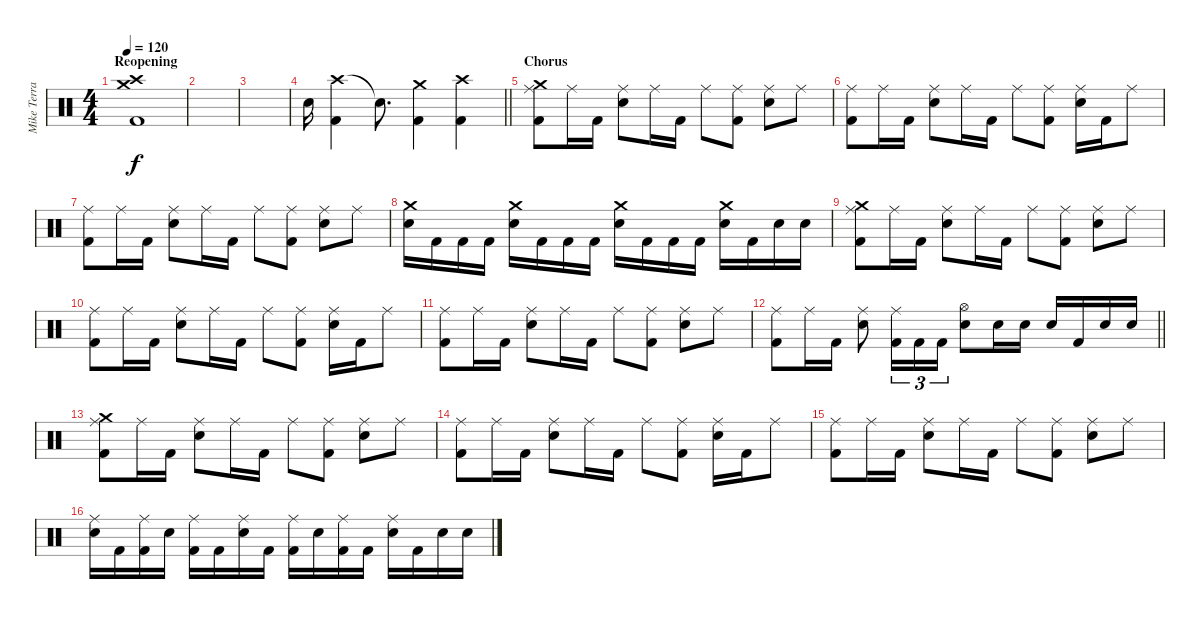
\track ("Mike Terrana" "Mike Terra") {instrument percussion}
\staff {score}
\articulation defaults
\ts (4 4)
\section ("" "Reopening")
\tempo 120
\clef neutral
\ks c
("Crash high (hit)" "Crash medium (hit)" "Kick (hit) 2").1{dy f} |
|
|
\barLineRight lightlight "Snare (hit) 2".16
("Crash high (hit)" "Kick (hit) 2").4 "Snare (hit)"{t}.8{d} ("Crash medium (hit)" "Kick (hit) 2").4 ("Crash high (hit)" "Kick (hit) 2").4 |
\section ("" "Chorus")
("Crash medium (hit)" "Ride (middle)" "Kick (hit) 2").8 "Ride (middle)".16 "Kick (hit) 2".16 ("Ride (middle)" "Snare (hit) 2").8 "Ride (middle)".16 "Kick (hit) 2".16 "Ride (middle)".8 ("Ride (middle)" "Kick (hit) 2").8 ("Ride (middle)" "Snare (hit) 2").8 "Ride (middle)".8 |
("Ride (middle)" "Kick (hit) 2").8 "Ride (middle)".16 "Kick (hit) 2".16 ("Ride (middle)" "Snare (hit) 2").8 "Ride (middle)".16 "Kick (hit) 2".16 "Ride (middle)".8 ("Ride (middle)" "Kick (hit) 2").8 ("Ride (middle)" "Snare (hit) 2").16 "Kick (hit) 2".16 "Ride (middle)".8 |
("Ride (middle)" "Kick (hit) 2").8 "Ride (middle)".16 "Kick (hit) 2".16 ("Ride (middle)" "Snare (hit) 2").8 "Ride (middle)".16 "Kick (hit) 2".16 "Ride (middle)".8 ("Ride (middle)" "Kick (hit) 2").8 ("Ride (middle)" "Snare (hit) 2").8 "Ride (middle)".8 |
("Crash medium (hit)" "Snare (hit) 2").16 "Kick (hit) 2".16 "Kick (hit) 2".16 "Kick (hit) 2".16 ("Crash medium (hit)" "Snare (hit) 2").16 "Kick (hit) 2".16 "Kick (hit) 2".16 "Kick (hit) 2".16 ("Crash medium (hit)" "Snare (hit) 2").16 "Kick (hit) 2".16 "Kick (hit) 2".16 "Kick (hit) 2".16 ("Crash medium (hit)" "Snare (hit) 2").16 "Kick (hit) 2".16 "Snare (hit) 2".16 "Snare (hit) 2".16 |
("Crash medium (hit)" "Ride (middle)" "Kick (hit) 2").8 "Ride (middle)".16 "Kick (hit) 2".16 ("Ride (middle)" "Snare (hit) 2").8 "Ride (middle)".16 "Kick (hit) 2".16 "Ride (middle)".8 ("Ride (middle)" "Kick (hit) 2").8 ("Ride (middle)" "Snare (hit) 2").8 "Ride (middle)".8 |
("Ride (middle)" "Kick (hit) 2").8 "Ride (middle)".16 "Kick (hit) 2".16 ("Ride (middle)" "Snare (hit) 2").8 "Ride (middle)".16 "Kick (hit) 2".16 "Ride (middle)".8 ("Ride (middle)" "Kick (hit) 2").8 ("Ride (middle)" "Snare (hit) 2").16 "Kick (hit) 2".16 "Ride (middle)".8 |
("Ride (middle)" "Kick (hit) 2").8 "Ride (middle)".16 "Kick (hit) 2".16 ("Ride (middle)" "Snare (hit) 2").8 "Ride (middle)".16 "Kick (hit) 2".16 "Ride (middle)".8 ("Ride (middle)" "Kick (hit) 2").8 ("Ride (middle)" "Snare (hit) 2").8 "Ride (middle)".8 |
\barLineRight lightlight
("Ride (middle)" "Kick (hit) 2").8 "Ride (middle)".16 "Kick (hit) 2".16 ("Ride (middle)" "Snare (hit) 2").8 ("Ride (middle)" "Kick (hit) 2").16{tu (3 2)} "Kick (hit) 2".16{tu (3 2)} "Kick (hit) 2".16{tu (3 2)} ("Hi-Hat (open)" "Snare (hit) 2").8 "Snare (hit) 2".16 "Snare (hit) 2".16 "Snare (hit) 2".16 "Kick (hit) 2".16 "Snare (hit) 2".16 "Snare (hit) 2".16 |
("Crash medium (hit)" "Ride (middle)" "Kick (hit) 2").8 "Ride (middle)".16 "Kick (hit) 2".16 ("Ride (middle)" "Snare (hit) 2").8 "Ride (middle)".16 "Kick (hit) 2".16 "Ride (middle)".8 ("Ride (middle)" "Kick (hit) 2").8 ("Ride (middle)" "Snare (hit) 2").8 "Ride (middle)".8 |
("Ride (middle)" "Kick (hit) 2").8 "Ride (middle)".16 "Kick (hit) 2".16 ("Ride (middle)" "Snare (hit) 2").8 "Ride (middle)".16 "Kick (hit) 2".16 "Ride (middle)".8 ("Ride (middle)" "Kick (hit) 2").8 ("Ride (middle)" "Snare (hit) 2").16 "Kick (hit) 2".16 "Ride (middle)".8 |
("Ride (middle)" "Kick (hit) 2").8 "Ride (middle)".16 "Kick (hit) 2".16 ("Ride (middle)" "Snare (hit) 2").8 "Ride (middle)".16 "Kick (hit) 2".16 "Ride (middle)".8 ("Ride (middle)" "Kick (hit) 2").8 ("Ride (middle)" "Snare (hit) 2").8 "Ride (middle)".8 |
("Ride (middle)" "Snare (hit) 2").16 "Kick (hit) 2".16 ("Ride (middle)" "Kick (hit) 2").16 "Snare (hit) 2".16 ("Ride (middle)" "Kick (hit) 2").16 "Kick (hit) 2".16 ("Ride (middle)" "Snare (hit) 2").16 "Kick (hit) 2".16 ("Ride (middle)" "Kick (hit) 2").16 "Snare (hit) 2".16 ("Ride (middle)" "Kick (hit) 2").16 "Kick (hit) 2".16 ("Ride (middle)" "Snare (hit) 2").16 "Kick (hit) 2".16 "Snare (hit) 2".16 "Snare (hit) 2".16
